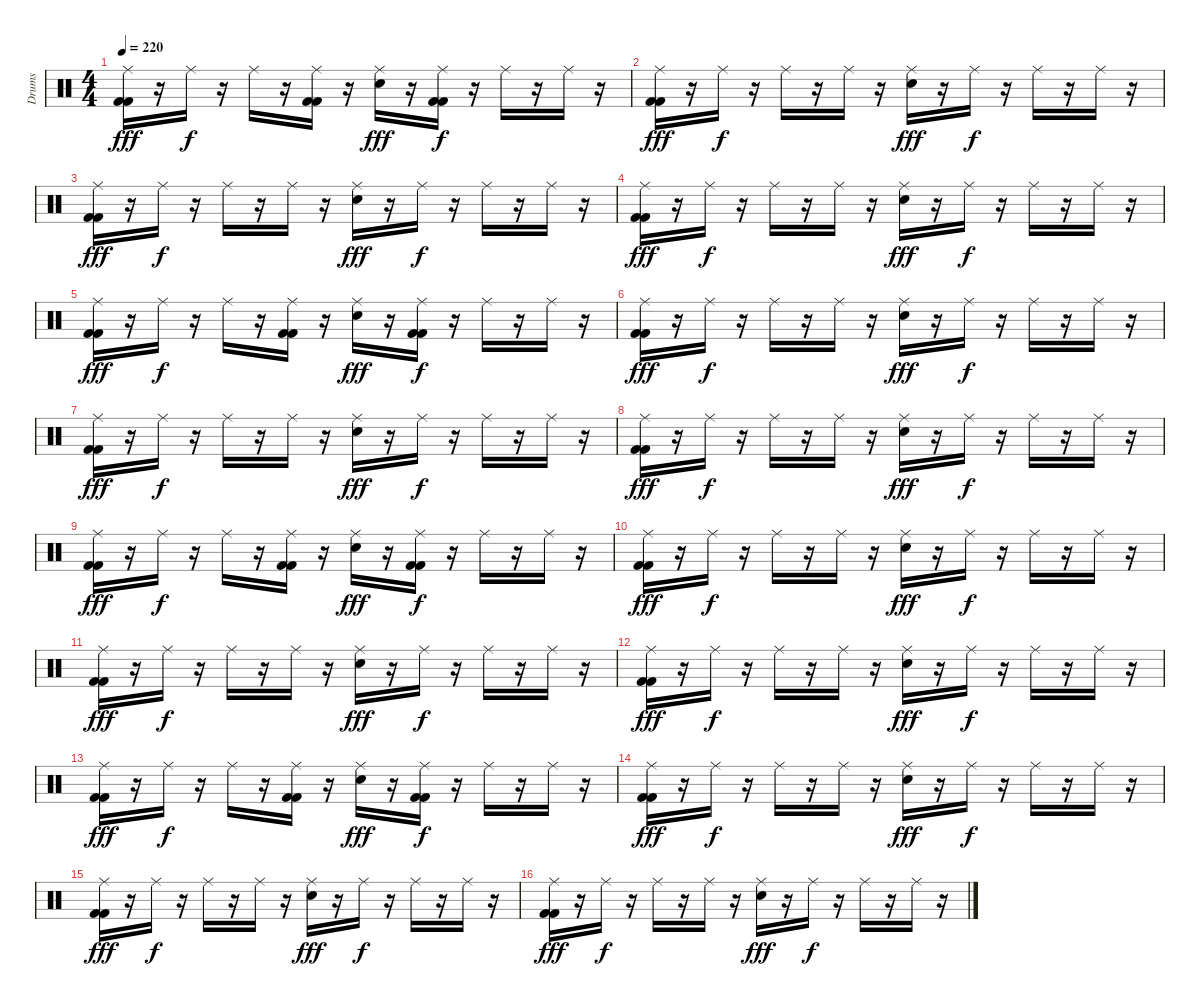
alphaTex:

\track ("Drums" "Drums") {instrument percussion}
\staff {score}
\articulation defaults
\ts (4 4)
\tempo 220
\clef neutral
\ks c
("Ride (middle)" "Kick (hit) 2" "Kick (hit) 2").16{dy fff} r.16 "Ride (middle)".16{dy f} r.16 "Ride (middle)".16 r.16 ("Ride (middle)" "Kick (hit) 2" "Kick (hit) 2").16 r.16 ("Ride (middle)" "Electric Snare (hit)").16{dy fff} r.16 ("Ride (middle)" "Kick (hit) 2" "Kick (hit) 2").16{dy f} r.16 "Ride (middle)".16 r.16 "Ride (middle)".16 r.16 |
("Ride (middle)" "Kick (hit) 2" "Kick (hit) 2").16{dy fff} r.16 "Ride (middle)".16{dy f} r.16 "Ride (middle)".16 r.16 "Ride (middle)".16 r.16 ("Ride (middle)" "Electric Snare (hit)").16{dy fff} r.16 "Ride (middle)".16{dy f} r.16 "Ride (middle)".16 r.16 "Ride (middle)".16 r.16 |
("Ride (middle)" "Kick (hit) 2" "Kick (hit) 2").16{dy fff} r.16 "Ride (middle)".16{dy f} r.16 "Ride (middle)".16 r.16 "Ride (middle)".16 r.16 ("Ride (middle)" "Electric Snare (hit)").16{dy fff} r.16 "Ride (middle)".16{dy f} r.16 "Ride (middle)".16 r.16 "Ride (middle)".16 r.16 |
("Ride (middle)" "Kick (hit) 2" "Kick (hit) 2").16{dy fff} r.16 "Ride (middle)".16{dy f} r.16 "Ride (middle)".16 r.16 "Ride (middle)".16 r.16 ("Ride (middle)" "Electric Snare (hit)").16{dy fff} r.16 "Ride (middle)".16{dy f} r.16 "Ride (middle)".16 r.16 "Ride (middle)".16 r.16 |
("Ride (middle)" "Kick (hit) 2" "Kick (hit) 2").16{dy fff} r.16 "Ride (middle)".16{dy f} r.16 "Ride (middle)".16 r.16 ("Ride (middle)" "Kick (hit) 2" "Kick (hit) 2").16 r.16 ("Ride (middle)" "Electric Snare (hit)").16{dy fff} r.16 ("Ride (middle)" "Kick (hit) 2" "Kick (hit) 2").16{dy f} r.16 "Ride (middle)".16 r.16 "Ride (middle)".16 r.16 |
("Ride (middle)" "Kick (hit) 2" "Kick (hit) 2").16{dy fff} r.16 "Ride (middle)".16{dy f} r.16 "Ride (middle)".16 r.16 "Ride (middle)".16 r.16 ("Ride (middle)" "Electric Snare (hit)").16{dy fff} r.16 "Ride (middle)".16{dy f} r.16 "Ride (middle)".16 r.16 "Ride (middle)".16 r.16 |
("Ride (middle)" "Kick (hit) 2" "Kick (hit) 2").16{dy fff} r.16 "Ride (middle)".16{dy f} r.16 "Ride (middle)".16 r.16 "Ride (middle)".16 r.16 ("Ride (middle)" "Electric Snare (hit)").16{dy fff} r.16 "Ride (middle)".16{dy f} r.16 "Ride (middle)".16 r.16 "Ride (middle)".16 r.16 |
("Ride (middle)" "Kick (hit) 2" "Kick (hit) 2").16{dy fff} r.16 "Ride (middle)".16{dy f} r.16 "Ride (middle)".16 r.16 "Ride (middle)".16 r.16 ("Ride (middle)" "Electric Snare (hit)").16{dy fff} r.16 "Ride (middle)".16{dy f} r.16 "Ride (middle)".16 r.16 "Ride (middle)".16 r.16 |
("Ride (middle)" "Kick (hit) 2" "Kick (hit) 2").16{dy fff} r.16 "Ride (middle)".16{dy f} r.16 "Ride (middle)".16 r.16 ("Ride (middle)" "Kick (hit) 2" "Kick (hit) 2").16 r.16 ("Ride (middle)" "Electric Snare (hit)").16{dy fff} r.16 ("Ride (middle)" "Kick (hit) 2" "Kick (hit) 2").16{dy f} r.16 "Ride (middle)".16 r.16 "Ride (middle)".16 r.16 |
("Ride (middle)" "Kick (hit) 2" "Kick (hit) 2").16{dy fff} r.16 "Ride (middle)".16{dy f} r.16 "Ride (middle)".16 r.16 "Ride (middle)".16 r.16 ("Ride (middle)" "Electric Snare (hit)").16{dy fff} r.16 "Ride (middle)".16{dy f} r.16 "Ride (middle)".16 r.16 "Ride (middle)".16 r.16 |
("Ride (middle)" "Kick (hit) 2" "Kick (hit) 2").16{dy fff} r.16 "Ride (middle)".16{dy f} r.16 "Ride (middle)".16 r.16 "Ride (middle)".16 r.16 ("Ride (middle)" "Electric Snare (hit)").16{dy fff} r.16 "Ride (middle)".16{dy f} r.16 "Ride (middle)".16 r.16 "Ride (middle)".16 r.16 |
("Ride (middle)" "Kick (hit) 2" "Kick (hit) 2").16{dy fff} r.16 "Ride (middle)".16{dy f} r.16 "Ride (middle)".16 r.16 "Ride (middle)".16 r.16 ("Ride (middle)" "Electric Snare (hit)").16{dy fff} r.16 "Ride (middle)".16{dy f} r.16 "Ride (middle)".16 r.16 "Ride (middle)".16 r.16 |
("Ride (middle)" "Kick (hit) 2" "Kick (hit) 2").16{dy fff} r.16 "Ride (middle)".16{dy f} r.16 "Ride (middle)".16 r.16 ("Ride (middle)" "Kick (hit) 2" "Kick (hit) 2").16 r.16 ("Ride (middle)" "Electric Snare (hit)").16{dy fff} r.16 ("Ride (middle)" "Kick (hit) 2" "Kick (hit) 2").16{dy f} r.16 "Ride (middle)".16 r.16 "Ride (middle)".16 r.16 |
("Ride (middle)" "Kick (hit) 2" "Kick (hit) 2").16{dy fff} r.16 "Ride (middle)".16{dy f} r.16 "Ride (middle)".16 r.16 "Ride (middle)".16 r.16 ("Ride (middle)" "Electric Snare (hit)").16{dy fff} r.16 "Ride (middle)".16{dy f} r.16 "Ride (middle)".16 r.16 "Ride (middle)".16 r.16 |
("Ride (middle)" "Kick (hit) 2" "Kick (hit) 2").16{dy fff} r.16 "Ride (middle)".16{dy f} r.16 "Ride (middle)".16 r.16 "Ride (middle)".16 r.16 ("Ride (middle)" "Electric Snare (hit)").16{dy fff} r.16 "Ride (middle)".16{dy f} r.16 "Ride (middle)".16 r.16 "Ride (middle)".16 r.16 |
("Ride (middle)" "Kick (hit) 2" "Kick (hit) 2").16{dy fff} r.16 "Ride (middle)".16{dy f} r.16 "Ride (middle)".16 r.16 "Ride (middle)".16 r.16 ("Ride (middle)" "Electric Snare (hit)").16{dy fff} r.16 "Ride (middle)".16{dy f} r.16 "Ride (middle)".16 r.16 "Ride (middle)".16 r.16
